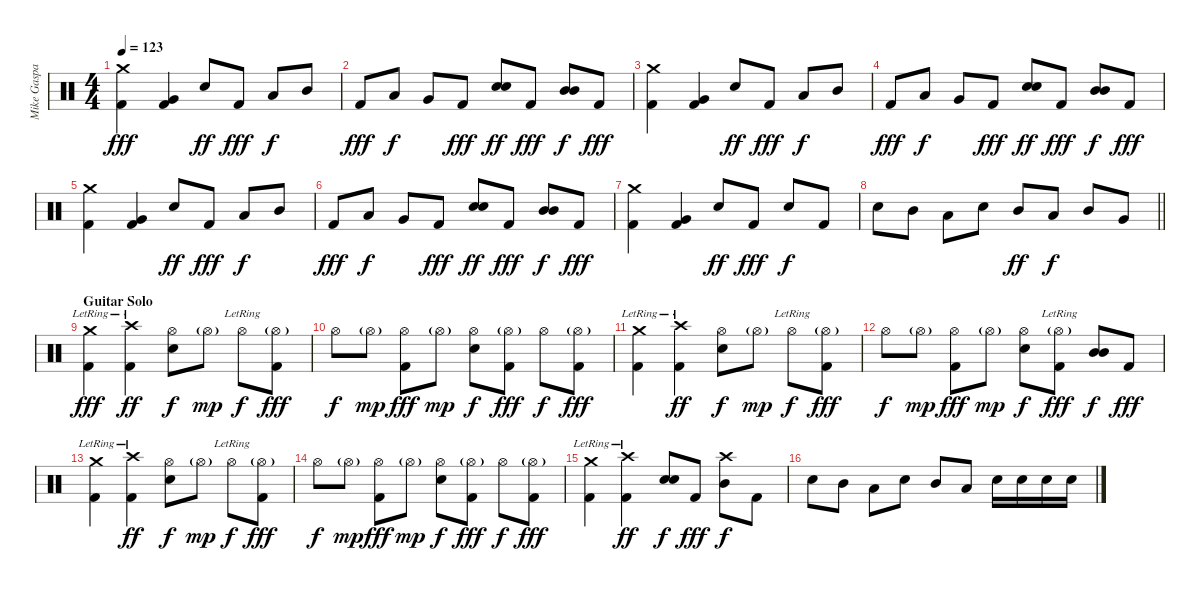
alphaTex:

\track ("Mike Gaspar (Drums)" "Mike Gaspa") {instrument percussion}
\staff {score}
\articulation defaults
\ts (4 4)
\tempo 123
\clef neutral
\ks c
("Crash medium (hit)" "Kick (hit) 2").4{dy fff} ("Very Low Tom (hit)" "Kick (hit) 2").4 "Snare (hit) 2".8{dy ff} "Kick (hit) 2".8{dy fff} "Low Tom (hit)".8{dy f} "Mid Tom (hit)".8 |
"Kick (hit) 2".8{dy fff} "Low Tom (hit)".8{dy f} "Very Low Tom (hit)".8 "Kick (hit) 2".8{dy fff} ("Snare (hit) 2" "Snare (hit) 2").8{bd 60 dy ff} "Kick (hit) 2".8{dy fff} ("Mid Tom (hit)" "Mid Tom (hit)").8{bd 60 dy f} "Kick (hit) 2".8{dy fff} |
("Crash medium (hit)" "Kick (hit) 2").4 ("Very Low Tom (hit)" "Kick (hit) 2").4 "Snare (hit) 2".8{dy ff} "Kick (hit) 2".8{dy fff} "Low Tom (hit)".8{dy f} "Mid Tom (hit)".8 |
"Kick (hit) 2".8{dy fff} "Low Tom (hit)".8{dy f} "Very Low Tom (hit)".8 "Kick (hit) 2".8{dy fff} ("Snare (hit) 2" "Snare (hit) 2").8{bd 60 dy ff} "Kick (hit) 2".8{dy fff} ("Mid Tom (hit)" "Mid Tom (hit)").8{bd 60 dy f} "Kick (hit) 2".8{dy fff} |
("Crash medium (hit)" "Kick (hit) 2").4 ("Very Low Tom (hit)" "Kick (hit) 2").4 "Snare (hit) 2".8{dy ff} "Kick (hit) 2".8{dy fff} "Low Tom (hit)".8{dy f} "Mid Tom (hit)".8 |
"Kick (hit) 2".8{dy fff} "Low Tom (hit)".8{dy f} "Very Low Tom (hit)".8 "Kick (hit) 2".8{dy fff} ("Snare (hit) 2" "Snare (hit) 2").8{bd 60 dy ff} "Kick (hit) 2".8{dy fff} ("Mid Tom (hit)" "Mid Tom (hit)").8{bd 60 dy f} "Kick (hit) 2".8{dy fff} |
("Crash medium (hit)" "Kick (hit) 2").4 ("Very Low Tom (hit)" "Kick (hit) 2").4 "Snare (hit) 2".8{dy ff} "Kick (hit) 2".8{dy fff} "Snare (hit) 2".8{dy f} "Kick (hit) 2".8 |
\barLineRight lightlight "Snare (hit) 2".8 "Mid Tom (hit)".8 "Low Tom (hit)".8 "Snare (hit) 2".8 "Mid Tom (hit)".8{dy ff} "Low Tom (hit)".8{dy f} "Mid Tom (hit)".8 "Very Low Tom (hit)".8
|
\section ("" "Guitar Solo")
("Crash medium (hit)"{lr} "Kick (hit) 2").4{dy fff} ("Crash high (hit)"{lr} "Kick (hit) 2").4{dy ff} ("Hi-Hat (open)" "Snare (hit) 2").8{dy f} "Hi-Hat (open)"{g}.8{dy mp} "Hi-Hat (open)"{lr}.8{dy f} ("Hi-Hat (open)"{g} "Kick (hit) 2").8{dy fff} |
"Hi-Hat (open)".8{dy f} "Hi-Hat (open)"{g}.8{dy mp} ("Hi-Hat (open)" "Kick (hit) 2").8{dy fff} "Hi-Hat (open)"{g}.8{dy mp} ("Hi-Hat (open)" "Snare (hit) 2").8{dy f} ("Hi-Hat (open)"{g} "Kick (hit) 2").8{dy fff} "Hi-Hat (open)".8{dy f} ("Hi-Hat (open)"{g} "Kick (hit) 2").8{dy fff} |
("Crash medium (hit)"{lr} "Kick (hit) 2").4 ("Crash high (hit)"{lr} "Kick (hit) 2").4{dy ff} ("Hi-Hat (open)" "Snare (hit) 2").8{dy f} "Hi-Hat (open)"{g}.8{dy mp} "Hi-Hat (open)"{lr}.8{dy f} ("Hi-Hat (open)"{g} "Kick (hit) 2").8{dy fff} |
"Hi-Hat (open)".8{dy f} "Hi-Hat (open)"{g}.8{dy mp} ("Hi-Hat (open)" "Kick (hit) 2").8{dy fff} "Hi-Hat (open)"{g}.8{dy mp} ("Hi-Hat (open)" "Snare (hit) 2").8{dy f} ("Hi-Hat (open)"{g lr} "Kick (hit) 2").8{dy fff} ("Mid Tom (hit)" "Mid Tom (hit)").8{bd 60 dy f} "Kick (hit) 2".8{dy fff} |
("Crash medium (hit)"{lr} "Kick (hit) 2").4 ("Crash high (hit)"{lr} "Kick (hit) 2").4{dy ff} ("Hi-Hat (open)" "Snare (hit) 2").8{dy f} "Hi-Hat (open)"{g}.8{dy mp} "Hi-Hat (open)"{lr}.8{dy f} ("Hi-Hat (open)"{g} "Kick (hit) 2").8{dy fff} |
"Hi-Hat (open)".8{dy f} "Hi-Hat (open)"{g}.8{dy mp} ("Hi-Hat (open)" "Kick (hit) 2").8{dy fff} "Hi-Hat (open)"{g}.8{dy mp} ("Hi-Hat (open)" "Snare (hit) 2").8{dy f} ("Hi-Hat (open)"{g} "Kick (hit) 2").8{dy fff} "Hi-Hat (open)".8{dy f} ("Hi-Hat (open)"{g} "Kick (hit) 2").8{dy fff} |
("Crash medium (hit)"{lr} "Kick (hit) 2").4 ("Crash high (hit)"{lr} "Kick (hit) 2").4{dy ff} ("Snare (hit) 2" "Snare (hit) 2").8{bd 60 dy f} "Kick (hit) 2".8{dy fff} ("Crash high (hit)" "Mid Tom (hit)").8{dy f} "Kick (hit) 2".8 |
"Snare (hit) 2".8 "Mid Tom (hit)".8 "Low Tom (hit)".8 "Snare (hit) 2".8 "Mid Tom (hit)".8 "Low Tom (hit)".8 "Snare (hit) 2".16 "Snare (hit) 2".16 "Snare (hit) 2".16 "Snare (hit) 2".16
